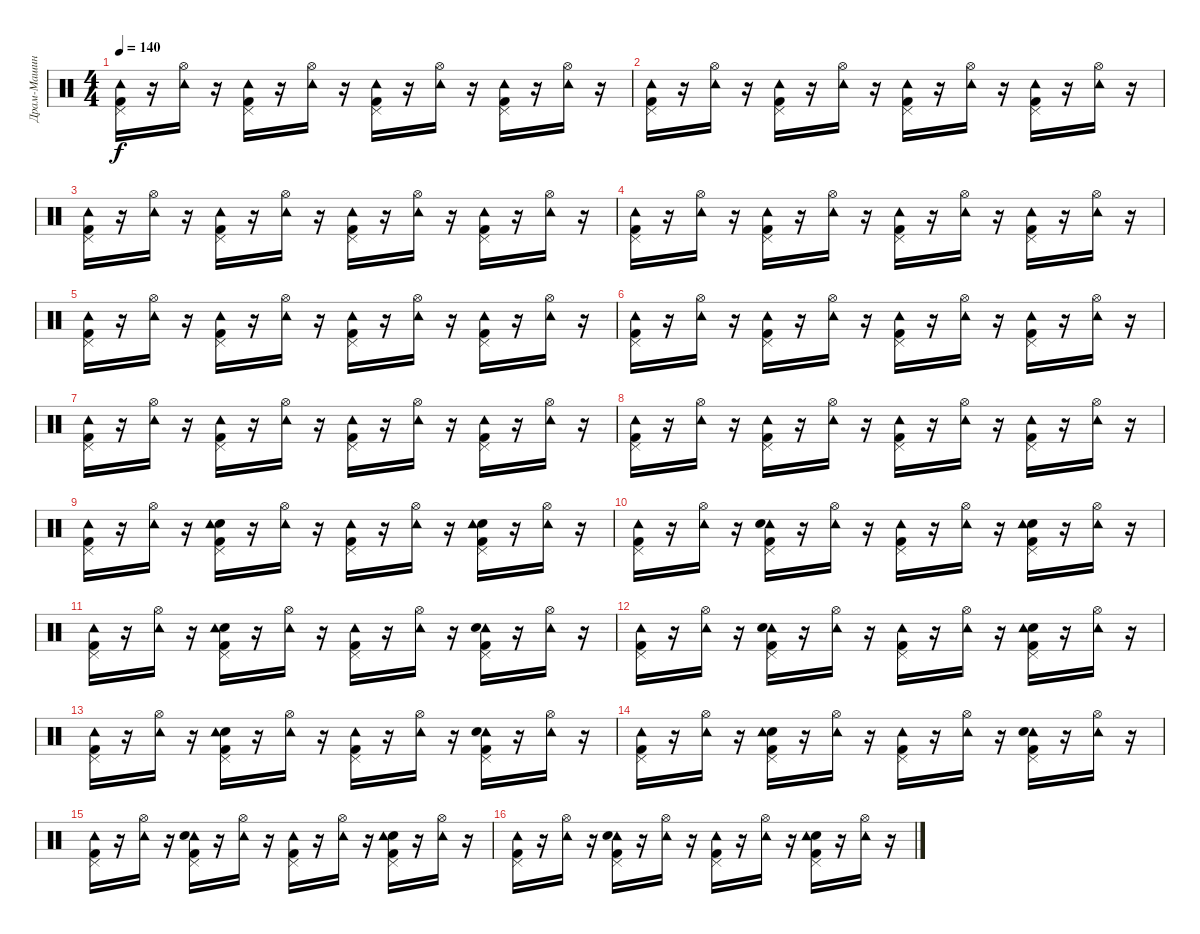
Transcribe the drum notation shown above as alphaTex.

\track ("Драм-Машина" "Драм-Машин") {instrument percussion}
\staff {score}
\articulation defaults
\ts (4 4)
\tempo 140
\clef neutral
\ks c
("Pedal Hi-Hat (hit)" "Tambourine (hit)" "Kick (hit) 2").16{dy f} r.16 ("Tambourine (hit)" "Hi-Hat (open)").16 r.16 ("Kick (hit) 2" "Pedal Hi-Hat (hit)" "Tambourine (hit)").16 r.16 ("Tambourine (hit)" "Hi-Hat (open)").16 r.16 ("Tambourine (hit)" "Kick (hit) 2" "Pedal Hi-Hat (hit)").16 r.16 ("Hi-Hat (open)" "Tambourine (hit)").16 r.16 ("Kick (hit) 2" "Tambourine (hit)" "Pedal Hi-Hat (hit)").16 r.16 ("Tambourine (hit)" "Hi-Hat (open)").16 r.16 |
("Kick (hit) 2" "Tambourine (hit)" "Pedal Hi-Hat (hit)").16 r.16 ("Hi-Hat (open)" "Tambourine (hit)").16 r.16 ("Kick (hit) 2" "Pedal Hi-Hat (hit)" "Tambourine (hit)").16 r.16 ("Hi-Hat (open)" "Tambourine (hit)").16 r.16 ("Kick (hit) 2" "Tambourine (hit)" "Pedal Hi-Hat (hit)").16 r.16 ("Tambourine (hit)" "Hi-Hat (open)").16 r.16 ("Kick (hit) 2" "Tambourine (hit)" "Pedal Hi-Hat (hit)").16 r.16 ("Hi-Hat (open)" "Tambourine (hit)").16 r.16 |
("Kick (hit) 2" "Tambourine (hit)" "Pedal Hi-Hat (hit)").16 r.16 ("Tambourine (hit)" "Hi-Hat (open)").16 r.16 ("Kick (hit) 2" "Pedal Hi-Hat (hit)" "Tambourine (hit)").16 r.16 ("Tambourine (hit)" "Hi-Hat (open)").16 r.16 ("Pedal Hi-Hat (hit)" "Kick (hit) 2" "Tambourine (hit)").16 r.16 ("Hi-Hat (open)" "Tambourine (hit)").16 r.16 ("Kick (hit) 2" "Pedal Hi-Hat (hit)" "Tambourine (hit)").16 r.16 ("Tambourine (hit)" "Hi-Hat (open)").16 r.16 |
("Pedal Hi-Hat (hit)" "Tambourine (hit)" "Kick (hit) 2").16 r.16 ("Hi-Hat (open)" "Tambourine (hit)").16 r.16 ("Kick (hit) 2" "Tambourine (hit)" "Pedal Hi-Hat (hit)").16 r.16 ("Hi-Hat (open)" "Tambourine (hit)").16 r.16 ("Tambourine (hit)" "Kick (hit) 2" "Pedal Hi-Hat (hit)").16 r.16 ("Tambourine (hit)" "Hi-Hat (open)").16 r.16 ("Kick (hit) 2" "Tambourine (hit)" "Pedal Hi-Hat (hit)").16 r.16 ("Tambourine (hit)" "Hi-Hat (open)").16 r.16 |
("Pedal Hi-Hat (hit)" "Tambourine (hit)" "Kick (hit) 2").16 r.16 ("Tambourine (hit)" "Hi-Hat (open)").16 r.16 ("Kick (hit) 2" "Pedal Hi-Hat (hit)" "Tambourine (hit)").16 r.16 ("Tambourine (hit)" "Hi-Hat (open)").16 r.16 ("Tambourine (hit)" "Kick (hit) 2" "Pedal Hi-Hat (hit)").16 r.16 ("Hi-Hat (open)" "Tambourine (hit)").16 r.16 ("Kick (hit) 2" "Tambourine (hit)" "Pedal Hi-Hat (hit)").16 r.16 ("Tambourine (hit)" "Hi-Hat (open)").16 r.16 |
("Kick (hit) 2" "Tambourine (hit)" "Pedal Hi-Hat (hit)").16 r.16 ("Hi-Hat (open)" "Tambourine (hit)").16 r.16 ("Kick (hit) 2" "Pedal Hi-Hat (hit)" "Tambourine (hit)").16 r.16 ("Hi-Hat (open)" "Tambourine (hit)").16 r.16 ("Kick (hit) 2" "Tambourine (hit)" "Pedal Hi-Hat (hit)").16 r.16 ("Tambourine (hit)" "Hi-Hat (open)").16 r.16 ("Kick (hit) 2" "Tambourine (hit)" "Pedal Hi-Hat (hit)").16 r.16 ("Hi-Hat (open)" "Tambourine (hit)").16 r.16 |
("Kick (hit) 2" "Tambourine (hit)" "Pedal Hi-Hat (hit)").16 r.16 ("Tambourine (hit)" "Hi-Hat (open)").16 r.16 ("Kick (hit) 2" "Pedal Hi-Hat (hit)" "Tambourine (hit)").16 r.16 ("Tambourine (hit)" "Hi-Hat (open)").16 r.16 ("Pedal Hi-Hat (hit)" "Kick (hit) 2" "Tambourine (hit)").16 r.16 ("Hi-Hat (open)" "Tambourine (hit)").16 r.16 ("Kick (hit) 2" "Pedal Hi-Hat (hit)" "Tambourine (hit)").16 r.16 ("Tambourine (hit)" "Hi-Hat (open)").16 r.16 |
("Pedal Hi-Hat (hit)" "Tambourine (hit)" "Kick (hit) 2").16 r.16 ("Hi-Hat (open)" "Tambourine (hit)").16 r.16 ("Kick (hit) 2" "Tambourine (hit)" "Pedal Hi-Hat (hit)").16 r.16 ("Hi-Hat (open)" "Tambourine (hit)").16 r.16 ("Tambourine (hit)" "Kick (hit) 2" "Pedal Hi-Hat (hit)").16 r.16 ("Tambourine (hit)" "Hi-Hat (open)").16 r.16 ("Kick (hit) 2" "Tambourine (hit)" "Pedal Hi-Hat (hit)").16 r.16 ("Tambourine (hit)" "Hi-Hat (open)").16 r.16 |
("Pedal Hi-Hat (hit)" "Tambourine (hit)" "Kick (hit) 2").16 r.16 ("Tambourine (hit)" "Hi-Hat (open)").16 r.16 ("Snare (hit) 2" "Kick (hit) 2" "Pedal Hi-Hat (hit)" "Tambourine (hit)").16 r.16 ("Tambourine (hit)" "Hi-Hat (open)").16 r.16 ("Tambourine (hit)" "Kick (hit) 2" "Pedal Hi-Hat (hit)").16 r.16 ("Hi-Hat (open)" "Tambourine (hit)").16 r.16 ("Snare (hit) 2" "Kick (hit) 2" "Tambourine (hit)" "Pedal Hi-Hat (hit)").16 r.16 ("Tambourine (hit)" "Hi-Hat (open)").16 r.16 |
("Pedal Hi-Hat (hit)" "Tambourine (hit)" "Kick (hit) 2").16 r.16 ("Tambourine (hit)" "Hi-Hat (open)").16 r.16 ("Kick (hit) 2" "Tambourine (hit)" "Snare (hit) 2" "Pedal Hi-Hat (hit)").16 r.16 ("Hi-Hat (open)" "Tambourine (hit)").16 r.16 ("Pedal Hi-Hat (hit)" "Tambourine (hit)" "Kick (hit) 2").16 r.16 ("Hi-Hat (open)" "Tambourine (hit)").16 r.16 ("Kick (hit) 2" "Snare (hit) 2" "Pedal Hi-Hat (hit)" "Tambourine (hit)").16 r.16 ("Hi-Hat (open)" "Tambourine (hit)").16 r.16 |
("Pedal Hi-Hat (hit)" "Kick (hit) 2" "Tambourine (hit)").16 r.16 ("Hi-Hat (open)" "Tambourine (hit)").16 r.16 ("Pedal Hi-Hat (hit)" "Kick (hit) 2" "Snare (hit) 2" "Tambourine (hit)").16 r.16 ("Tambourine (hit)" "Hi-Hat (open)").16 r.16 ("Tambourine (hit)" "Pedal Hi-Hat (hit)" "Kick (hit) 2").16 r.16 ("Hi-Hat (open)" "Tambourine (hit)").16 r.16 ("Kick (hit) 2" "Tambourine (hit)" "Snare (hit) 2" "Pedal Hi-Hat (hit)").16 r.16 ("Tambourine (hit)" "Hi-Hat (open)").16 r.16 |
("Pedal Hi-Hat (hit)" "Tambourine (hit)" "Kick (hit) 2").16 r.16 ("Tambourine (hit)" "Hi-Hat (open)").16 r.16 ("Kick (hit) 2" "Tambourine (hit)" "Snare (hit) 2" "Pedal Hi-Hat (hit)").16 r.16 ("Hi-Hat (open)" "Tambourine (hit)").16 r.16 ("Pedal Hi-Hat (hit)" "Tambourine (hit)" "Kick (hit) 2").16 r.16 ("Hi-Hat (open)" "Tambourine (hit)").16 r.16 ("Kick (hit) 2" "Snare (hit) 2" "Pedal Hi-Hat (hit)" "Tambourine (hit)").16 r.16 ("Hi-Hat (open)" "Tambourine (hit)").16 r.16 |
("Pedal Hi-Hat (hit)" "Kick (hit) 2" "Tambourine (hit)").16 r.16 ("Hi-Hat (open)" "Tambourine (hit)").16 r.16 ("Pedal Hi-Hat (hit)" "Kick (hit) 2" "Snare (hit) 2" "Tambourine (hit)").16 r.16 ("Tambourine (hit)" "Hi-Hat (open)").16 r.16 ("Tambourine (hit)" "Pedal Hi-Hat (hit)" "Kick (hit) 2").16 r.16 ("Hi-Hat (open)" "Tambourine (hit)").16 r.16 ("Kick (hit) 2" "Tambourine (hit)" "Snare (hit) 2" "Pedal Hi-Hat (hit)").16 r.16 ("Tambourine (hit)" "Hi-Hat (open)").16 r.16 |
("Tambourine (hit)" "Kick (hit) 2" "Pedal Hi-Hat (hit)").16 r.16 ("Tambourine (hit)" "Hi-Hat (open)").16 r.16 ("Snare (hit) 2" "Kick (hit) 2" "Tambourine (hit)" "Pedal Hi-Hat (hit)").16 r.16 ("Tambourine (hit)" "Hi-Hat (open)").16 r.16 ("Tambourine (hit)" "Kick (hit) 2" "Pedal Hi-Hat (hit)").16 r.16 ("Tambourine (hit)" "Hi-Hat (open)").16 r.16 ("Pedal Hi-Hat (hit)" "Kick (hit) 2" "Tambourine (hit)" "Snare (hit) 2").16 r.16 ("Tambourine (hit)" "Hi-Hat (open)").16 r.16 |
("Tambourine (hit)" "Pedal Hi-Hat (hit)" "Kick (hit) 2").16 r.16 ("Tambourine (hit)" "Hi-Hat (open)").16 r.16 ("Kick (hit) 2" "Tambourine (hit)" "Snare (hit) 2" "Pedal Hi-Hat (hit)").16 r.16 ("Hi-Hat (open)" "Tambourine (hit)").16 r.16 ("Pedal Hi-Hat (hit)" "Tambourine (hit)" "Kick (hit) 2").16 r.16 ("Hi-Hat (open)" "Tambourine (hit)").16 r.16 ("Snare (hit) 2" "Tambourine (hit)" "Kick (hit) 2" "Pedal Hi-Hat (hit)").16 r.16 ("Tambourine (hit)" "Hi-Hat (open)").16 r.16 |
("Tambourine (hit)" "Kick (hit) 2" "Pedal Hi-Hat (hit)").16 r.16 ("Tambourine (hit)" "Hi-Hat (open)").16 r.16 ("Tambourine (hit)" "Snare (hit) 2" "Kick (hit) 2" "Pedal Hi-Hat (hit)").16 r.16 ("Tambourine (hit)" "Hi-Hat (open)").16 r.16 ("Pedal Hi-Hat (hit)" "Kick (hit) 2" "Tambourine (hit)").16 r.16 ("Tambourine (hit)" "Hi-Hat (open)").16 r.16 ("Kick (hit) 2" "Snare (hit) 2" "Pedal Hi-Hat (hit)" "Tambourine (hit)").16 r.16 ("Tambourine (hit)" "Hi-Hat (open)").16 r.16
